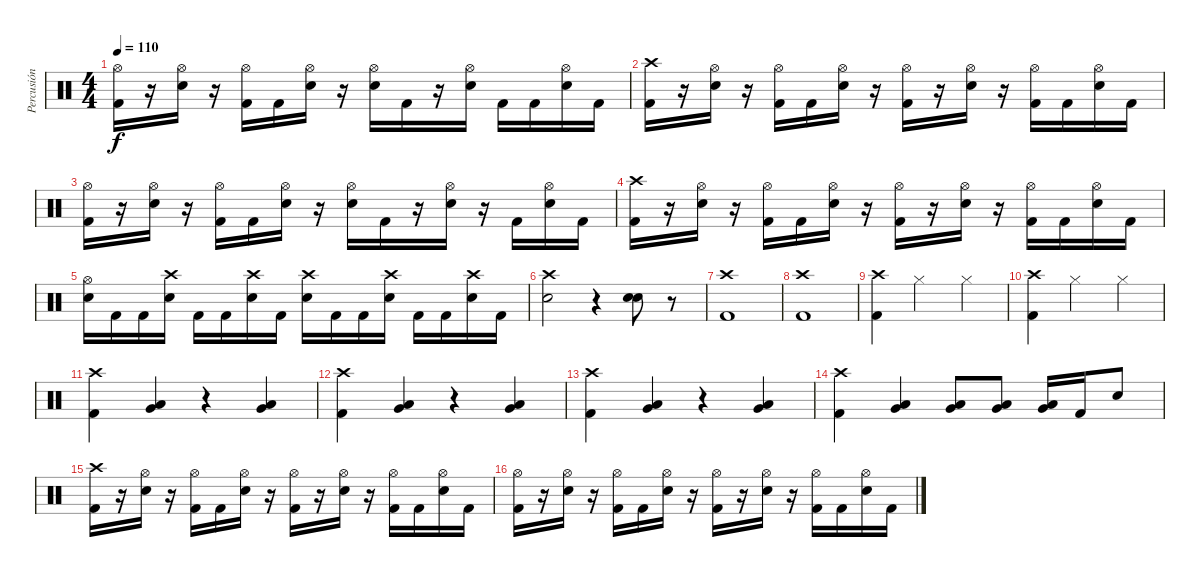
\track ("Percusión" "Percusión") {instrument percussion}
\staff {score}
\articulation defaults
\ts (4 4)
\tempo 110
\clef neutral
\ks c
("Hi-Hat (open)" "Kick (hit) 2").16{dy f} r.16 ("Hi-Hat (open)" "Electric Snare (hit)").16 r.16 ("Hi-Hat (open)" "Kick (hit) 2").16 "Kick (hit) 2".16 ("Hi-Hat (open)" "Electric Snare (hit)").16 r.16 ("Hi-Hat (open)" "Electric Snare (hit)").16 "Kick (hit) 2".16 r.16 ("Hi-Hat (open)" "Electric Snare (hit)").16 "Kick (hit) 2".16 "Kick (hit) 2".16 ("Hi-Hat (open)" "Electric Snare (hit)").16 "Kick (hit) 2".16 |
("Crash high (hit)" "Kick (hit) 2").16 r.16 ("Hi-Hat (open)" "Electric Snare (hit)").16 r.16 ("Hi-Hat (open)" "Kick (hit) 2").16 "Kick (hit) 2".16 ("Hi-Hat (open)" "Electric Snare (hit)").16 r.16 ("Hi-Hat (open)" "Kick (hit) 2").16 r.16 ("Hi-Hat (open)" "Electric Snare (hit)").16 r.16 ("Hi-Hat (open)" "Kick (hit) 2").16 "Kick (hit) 2".16 ("Hi-Hat (open)" "Electric Snare (hit)").16 "Kick (hit) 2".16 |
("Hi-Hat (open)" "Kick (hit) 2").16 r.16 ("Hi-Hat (open)" "Electric Snare (hit)").16 r.16 ("Hi-Hat (open)" "Kick (hit) 2").16 "Kick (hit) 2".16 ("Hi-Hat (open)" "Electric Snare (hit)").16 r.16 ("Hi-Hat (open)" "Electric Snare (hit)").16 "Kick (hit) 2".16 r.16 ("Hi-Hat (open)" "Electric Snare (hit)").16 r.16 "Kick (hit) 2".16 ("Hi-Hat (open)" "Electric Snare (hit)").16 "Kick (hit) 2".16 |
("Crash high (hit)" "Kick (hit) 2").16 r.16 ("Hi-Hat (open)" "Electric Snare (hit)").16 r.16 ("Hi-Hat (open)" "Kick (hit) 2").16 "Kick (hit) 2".16 ("Hi-Hat (open)" "Electric Snare (hit)").16 r.16 ("Hi-Hat (open)" "Kick (hit) 2").16 r.16 ("Hi-Hat (open)" "Electric Snare (hit)").16 r.16 ("Hi-Hat (open)" "Kick (hit) 2").16 "Kick (hit) 2".16 ("Hi-Hat (open)" "Electric Snare (hit)").16 "Kick (hit) 2".16 |
("Hi-Hat (open)" "Electric Snare (hit)").16 "Kick (hit) 2".16 "Kick (hit) 2".16 ("Crash high (hit)" "Electric Snare (hit)").16 "Kick (hit) 2".16 "Kick (hit) 2".16 ("Crash high (hit)" "Electric Snare (hit)").16 "Kick (hit) 2".16 ("Crash high (hit)" "Electric Snare (hit)").16 "Kick (hit) 2".16 "Kick (hit) 2".16 ("Crash high (hit)" "Electric Snare (hit)").16 "Kick (hit) 2".16 "Kick (hit) 2".16 ("Crash high (hit)" "Electric Snare (hit)").16 "Kick (hit) 2".16 |
("Crash high (hit)" "Electric Snare (hit)").2 r.4 ("Electric Snare (hit)" "Electric Snare (hit)").8 r.8 |
("Crash high (hit)" "Kick (hit) 2").1 |
("Crash high (hit)" "Kick (hit) 2").1 |
("Crash high (hit)" "Kick (hit) 2").4 "Hi-Hat (closed)".2 "Hi-Hat (closed)".4 |
("Crash high (hit)" "Kick (hit) 2").4 "Hi-Hat (closed)".2 "Hi-Hat (closed)".4 |
("Crash high (hit)" "Kick (hit) 2").4 ("Low Floor Tom (hit)" "Very Low Tom (hit)").4 r.4 ("Low Floor Tom (hit)" "Very Low Tom (hit)").4 |
("Crash high (hit)" "Kick (hit) 2").4 ("Low Floor Tom (hit)" "Very Low Tom (hit)").4 r.4 ("Low Floor Tom (hit)" "Very Low Tom (hit)").4 |
("Crash high (hit)" "Kick (hit) 2").4 ("Low Floor Tom (hit)" "Very Low Tom (hit)").4 r.4 ("Low Floor Tom (hit)" "Very Low Tom (hit)").4 |
("Crash high (hit)" "Kick (hit) 2").4 ("Low Floor Tom (hit)" "Very Low Tom (hit)").4 ("Low Floor Tom (hit)" "Very Low Tom (hit)").8 ("Low Floor Tom (hit)" "Very Low Tom (hit)").8 ("Low Floor Tom (hit)" "Very Low Tom (hit)").16 "Kick (hit) 2".16 "Electric Snare (hit)".8 |
("Crash high (hit)" "Kick (hit) 2").16 r.16 ("Hi-Hat (open)" "Electric Snare (hit)").16 r.16 ("Hi-Hat (open)" "Kick (hit) 2").16 "Kick (hit) 2".16 ("Hi-Hat (open)" "Electric Snare (hit)").16 r.16 ("Hi-Hat (open)" "Kick (hit) 2").16 r.16 ("Hi-Hat (open)" "Electric Snare (hit)").16 r.16 ("Hi-Hat (open)" "Kick (hit) 2").16 "Kick (hit) 2".16 ("Hi-Hat (open)" "Electric Snare (hit)").16 "Kick (hit) 2".16 |
("Hi-Hat (open)" "Kick (hit) 2").16 r.16 ("Hi-Hat (open)" "Electric Snare (hit)").16 r.16 ("Hi-Hat (open)" "Kick (hit) 2").16 "Kick (hit) 2".16 ("Hi-Hat (open)" "Electric Snare (hit)").16 r.16 ("Hi-Hat (open)" "Kick (hit) 2").16 r.16 ("Hi-Hat (open)" "Electric Snare (hit)").16 r.16 ("Hi-Hat (open)" "Kick (hit) 2").16 "Kick (hit) 2".16 ("Hi-Hat (open)" "Electric Snare (hit)").16 "Kick (hit) 2".16
